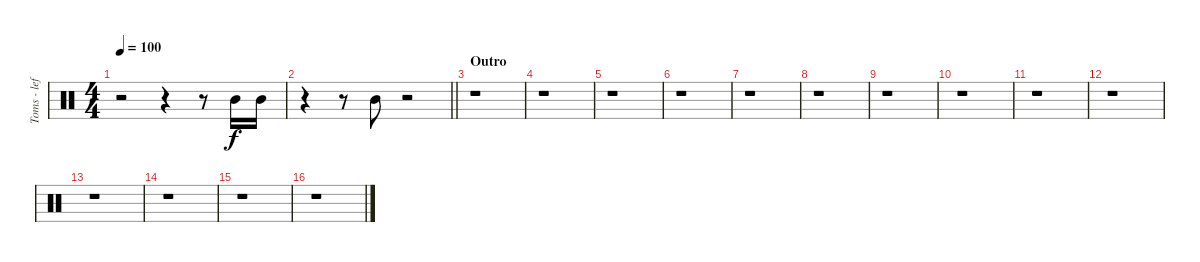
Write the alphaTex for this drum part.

\track ("Toms - left" "Toms - lef") {instrument percussion}
\staff {score}
\articulation defaults
\ts (4 4)
\tempo 100
\clef neutral
\ks c
r.2{dy f} r.4 r.8 "Mid Tom (hit)".16 "Mid Tom (hit)".16 |
\barLineRight lightlight
r.4 r.8 "Mid Tom (hit)".8 r.2 |
\section ("" "Outro")
r.1 |
r.1 |
r.1 |
r.1 |
r.1 |
r.1 |
r.1 |
r.1 |
r.1 |
r.1 |
r.1 |
r.1 |
r.1 |
r.1
